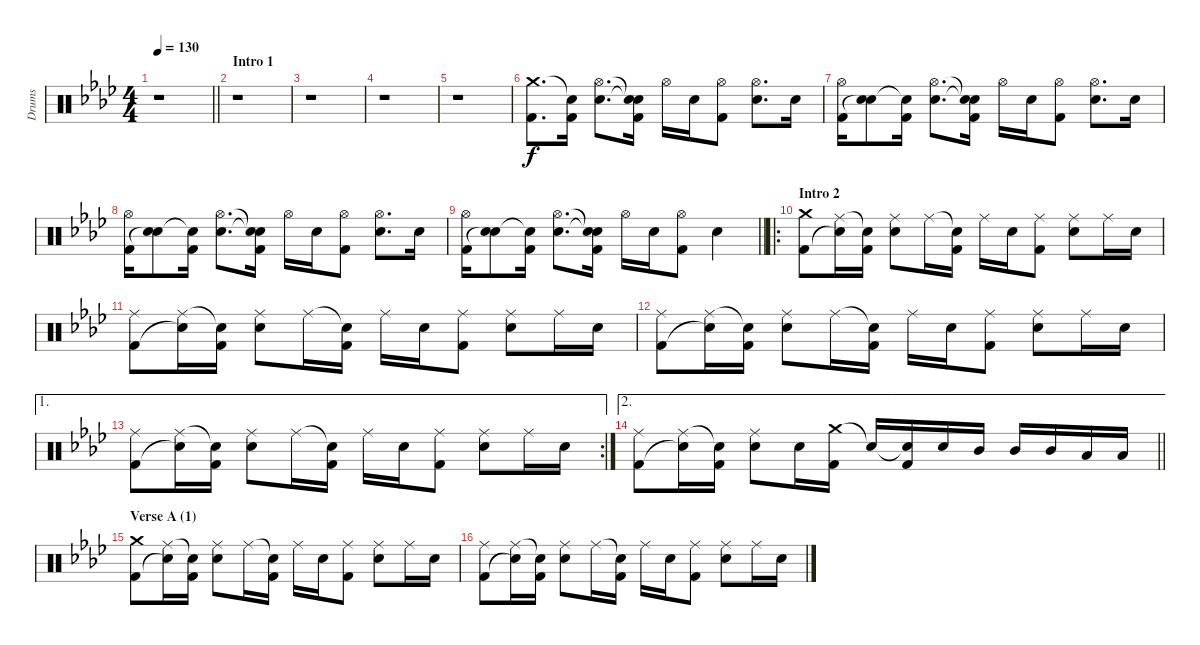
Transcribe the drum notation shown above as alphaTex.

\track ("Drums" "Drums") {instrument percussion}
\staff {score}
\articulation defaults
\ts (4 4)
\tempo 130
\clef neutral
\barLineRight lightlight
\ks fminor
r.1{dy f} |
\section ("" "Intro 1")
r.1 |
r.1 |
r.1 |
r.1 |
("Crash medium (hit)" "Kick (hit) 2").8{d} ("Snare (hit)"{t} "Kick (hit) 2").16 ("Hi-Hat (open)" "Electric Snare (hit)").8{d} ("Snare (hit)"{t} "Snare (hit)"{t} "Kick (hit) 2").16 "Hi-Hat (open)".16 "Electric Snare (hit)".16 ("Hi-Hat (open)" "Kick (hit) 2").8 ("Hi-Hat (open)" "Electric Snare (hit)").8{d} "Electric Snare (hit)".16 |
("Hi-Hat (open)" "Kick (hit) 2").16 ("Electric Snare (hit)" "Snare (hit)"{t}).8 ("Snare (hit)"{t} "Kick (hit) 2").16 ("Hi-Hat (open)" "Electric Snare (hit)").8{d} ("Snare (hit)"{t} "Snare (hit)"{t} "Kick (hit) 2").16 "Hi-Hat (open)".16 "Electric Snare (hit)".16 ("Hi-Hat (open)" "Kick (hit) 2").8 ("Hi-Hat (open)" "Electric Snare (hit)").8{d} "Electric Snare (hit)".16 |
("Hi-Hat (open)" "Kick (hit) 2").16 ("Electric Snare (hit)" "Snare (hit)"{t}).8 ("Snare (hit)"{t} "Kick (hit) 2").16 ("Hi-Hat (open)" "Electric Snare (hit)").8{d} ("Snare (hit)"{t} "Snare (hit)"{t} "Kick (hit) 2").16 "Hi-Hat (open)".16 "Electric Snare (hit)".16 ("Hi-Hat (open)" "Kick (hit) 2").8 ("Hi-Hat (open)" "Electric Snare (hit)").8{d} "Electric Snare (hit)".16 |
\barLineRight lightlight
("Hi-Hat (open)" "Kick (hit) 2").16 ("Electric Snare (hit)" "Snare (hit)"{t}).8 ("Snare (hit)"{t} "Kick (hit) 2").16 ("Hi-Hat (open)" "Electric Snare (hit)").8{d} ("Snare (hit)"{t} "Snare (hit)"{t} "Kick (hit) 2").16 "Hi-Hat (open)".16 "Electric Snare (hit)".16 ("Hi-Hat (open)" "Kick (hit) 2").8 "Electric Snare (hit)".4 |
\ro
\section ("" "Intro 2")
("Crash medium (hit)" "Kick (hit) 2").8 ("Ride (middle)" "Snare (hit)"{t}).16 ("Snare (hit)"{t} "Kick (hit) 2").16 ("Ride (middle)" "Electric Snare (hit)").8 "Ride (middle)".16 ("Snare (hit)"{t} "Kick (hit) 2").16 "Ride (middle)".16 "Electric Snare (hit)".16 ("Ride (middle)" "Kick (hit) 2").8 ("Ride (middle)" "Electric Snare (hit)").8 "Ride (middle)".16 "Electric Snare (hit)".16 |
("Ride (middle)" "Kick (hit) 2").8 ("Ride (middle)" "Snare (hit)"{t}).16 ("Snare (hit)"{t} "Kick (hit) 2").16 ("Ride (middle)" "Electric Snare (hit)").8 "Ride (middle)".16 ("Snare (hit)"{t} "Kick (hit) 2").16 "Ride (middle)".16 "Electric Snare (hit)".16 ("Ride (middle)" "Kick (hit) 2").8 ("Ride (middle)" "Electric Snare (hit)").8 "Ride (middle)".16 "Electric Snare (hit)".16 |
("Ride (middle)" "Kick (hit) 2").8 ("Ride (middle)" "Snare (hit)"{t}).16 ("Snare (hit)"{t} "Kick (hit) 2").16 ("Ride (middle)" "Electric Snare (hit)").8 "Ride (middle)".16 ("Snare (hit)"{t} "Kick (hit) 2").16 "Ride (middle)".16 "Electric Snare (hit)".16 ("Ride (middle)" "Kick (hit) 2").8 ("Ride (middle)" "Electric Snare (hit)").8 "Ride (middle)".16 "Electric Snare (hit)".16 |
\ae 1
\rc 2
("Ride (middle)" "Kick (hit) 2").8 ("Ride (middle)" "Snare (hit)"{t}).16 ("Snare (hit)"{t} "Kick (hit) 2").16 ("Ride (middle)" "Electric Snare (hit)").8 "Ride (middle)".16 ("Snare (hit)"{t} "Kick (hit) 2").16 "Ride (middle)".16 "Electric Snare (hit)".16 ("Ride (middle)" "Kick (hit) 2").8 ("Ride (middle)" "Electric Snare (hit)").8 "Ride (middle)".16 "Electric Snare (hit)".16 |
\ae 2
\barLineRight lightlight
("Ride (middle)" "Kick (hit) 2").8 ("Ride (middle)" "Snare (hit)"{t}).16 ("Snare (hit)"{t} "Kick (hit) 2").16 ("Ride (middle)" "Electric Snare (hit)").8 "Electric Snare (hit)".16 ("Crash medium (hit)" "Kick (hit) 2").16 "Snare (hit)"{t}.16 ("Snare (hit)"{t} "Kick (hit) 2").16 "Electric Snare (hit)".16 "Mid Tom (hit)".16 "Mid Tom (hit)".16 "Mid Tom (hit)".16 "Low Floor Tom (hit)".16 "Low Floor Tom (hit)".16 |
\section ("" "Verse A (1)")
("Crash medium (hit)" "Kick (hit) 2").8 ("Ride (middle)" "Snare (hit)"{t}).16 ("Snare (hit)"{t} "Kick (hit) 2").16 ("Ride (middle)" "Electric Snare (hit)").8 "Ride (middle)".16 ("Snare (hit)"{t} "Kick (hit) 2").16 "Ride (middle)".16 "Electric Snare (hit)".16 ("Ride (middle)" "Kick (hit) 2").8 ("Ride (middle)" "Electric Snare (hit)").8 "Ride (middle)".16 "Electric Snare (hit)".16 |
("Ride (middle)" "Kick (hit) 2").8 ("Ride (middle)" "Snare (hit)"{t}).16 ("Snare (hit)"{t} "Kick (hit) 2").16 ("Ride (middle)" "Electric Snare (hit)").8 "Ride (middle)".16 ("Snare (hit)"{t} "Kick (hit) 2").16 "Ride (middle)".16 "Electric Snare (hit)".16 ("Ride (middle)" "Kick (hit) 2").8 ("Ride (middle)" "Electric Snare (hit)").8 "Ride (middle)".16 "Electric Snare (hit)".16
